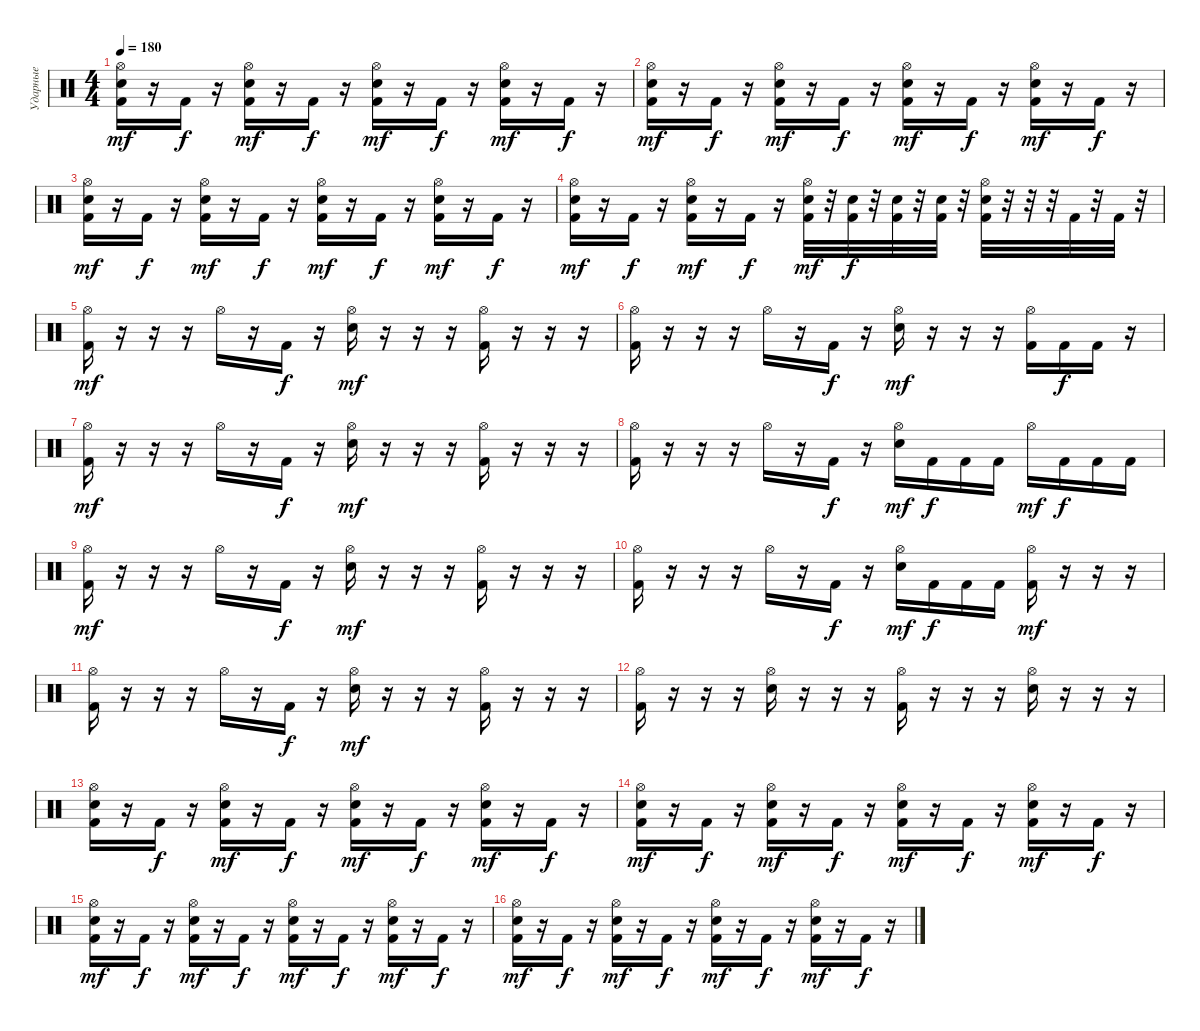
\track ("Ударные" "Ударные") {instrument percussion}
\staff {score}
\articulation defaults
\ts (4 4)
\tempo 180
\clef neutral
\ks c
("Hi-Hat (open)" "Snare (hit) 2" "Kick (hit) 2").16{dy mf} r.16 "Kick (hit) 2".16{dy f} r.16 ("Hi-Hat (open)" "Snare (hit) 2" "Kick (hit) 2").16{dy mf} r.16 "Kick (hit) 2".16{dy f} r.16 ("Hi-Hat (open)" "Snare (hit) 2" "Kick (hit) 2").16{dy mf} r.16 "Kick (hit) 2".16{dy f} r.16 ("Hi-Hat (open)" "Snare (hit) 2" "Kick (hit) 2").16{dy mf} r.16 "Kick (hit) 2".16{dy f} r.16 |
("Hi-Hat (open)" "Snare (hit) 2" "Kick (hit) 2").16{dy mf} r.16 "Kick (hit) 2".16{dy f} r.16 ("Hi-Hat (open)" "Snare (hit) 2" "Kick (hit) 2").16{dy mf} r.16 "Kick (hit) 2".16{dy f} r.16 ("Hi-Hat (open)" "Snare (hit) 2" "Kick (hit) 2").16{dy mf} r.16 "Kick (hit) 2".16{dy f} r.16 ("Hi-Hat (open)" "Snare (hit) 2" "Kick (hit) 2").16{dy mf} r.16 "Kick (hit) 2".16{dy f} r.16 |
("Hi-Hat (open)" "Snare (hit) 2" "Kick (hit) 2").16{dy mf} r.16 "Kick (hit) 2".16{dy f} r.16 ("Hi-Hat (open)" "Snare (hit) 2" "Kick (hit) 2").16{dy mf} r.16 "Kick (hit) 2".16{dy f} r.16 ("Hi-Hat (open)" "Snare (hit) 2" "Kick (hit) 2").16{dy mf} r.16 "Kick (hit) 2".16{dy f} r.16 ("Hi-Hat (open)" "Snare (hit) 2" "Kick (hit) 2").16{dy mf} r.16 "Kick (hit) 2".16{dy f} r.16 |
("Hi-Hat (open)" "Snare (hit) 2" "Kick (hit) 2").16{dy mf} r.16 "Kick (hit) 2".16{dy f} r.16 ("Hi-Hat (open)" "Snare (hit) 2" "Kick (hit) 2").16{dy mf} r.16 "Kick (hit) 2".16{dy f} r.16 ("Hi-Hat (open)" "Snare (hit) 2" "Kick (hit) 2").32{dy mf} r.32 ("Snare (hit) 2" "Kick (hit) 2").32{dy f} r.32 ("Snare (hit) 2" "Kick (hit) 2").32 r.32 ("Snare (hit) 2" "Kick (hit) 2").32 r.32 ("Hi-Hat (open)" "Snare (hit) 2" "Kick (hit) 2").32 r.32 r.32 r.32 "Kick (hit) 2".32 r.32 "Kick (hit) 2".32 r.32 |
("Hi-Hat (open)" "Kick (hit) 2").16{dy mf} r.16 r.16 r.16 "Hi-Hat (open)".16 r.16 "Kick (hit) 2".16{dy f} r.16 ("Hi-Hat (open)" "Snare (hit) 2").16{dy mf} r.16 r.16 r.16 ("Hi-Hat (open)" "Kick (hit) 2").16 r.16 r.16 r.16 |
("Hi-Hat (open)" "Kick (hit) 2").16 r.16 r.16 r.16 "Hi-Hat (open)".16 r.16 "Kick (hit) 2".16{dy f} r.16 ("Hi-Hat (open)" "Snare (hit) 2").16{dy mf} r.16 r.16 r.16 ("Hi-Hat (open)" "Kick (hit) 2").16 "Kick (hit) 2".16{dy f} "Kick (hit) 2".16 r.16 |
("Hi-Hat (open)" "Kick (hit) 2").16{dy mf} r.16 r.16 r.16 "Hi-Hat (open)".16 r.16 "Kick (hit) 2".16{dy f} r.16 ("Hi-Hat (open)" "Snare (hit) 2").16{dy mf} r.16 r.16 r.16 ("Hi-Hat (open)" "Kick (hit) 2").16 r.16 r.16 r.16 |
("Hi-Hat (open)" "Kick (hit) 2").16 r.16 r.16 r.16 "Hi-Hat (open)".16 r.16 "Kick (hit) 2".16{dy f} r.16 ("Hi-Hat (open)" "Snare (hit) 2").16{dy mf} "Kick (hit) 2".16{dy f} "Kick (hit) 2".16 "Kick (hit) 2".16 "Hi-Hat (open)".16{dy mf} "Kick (hit) 2".16{dy f} "Kick (hit) 2".16 "Kick (hit) 2".16 |
("Hi-Hat (open)" "Kick (hit) 2").16{dy mf} r.16 r.16 r.16 "Hi-Hat (open)".16 r.16 "Kick (hit) 2".16{dy f} r.16 ("Hi-Hat (open)" "Snare (hit) 2").16{dy mf} r.16 r.16 r.16 ("Hi-Hat (open)" "Kick (hit) 2").16 r.16 r.16 r.16 |
("Hi-Hat (open)" "Kick (hit) 2").16 r.16 r.16 r.16 "Hi-Hat (open)".16 r.16 "Kick (hit) 2".16{dy f} r.16 ("Hi-Hat (open)" "Snare (hit) 2").16{dy mf} "Kick (hit) 2".16{dy f} "Kick (hit) 2".16 "Kick (hit) 2".16 ("Hi-Hat (open)" "Kick (hit) 2").16{dy mf} r.16 r.16 r.16 |
("Hi-Hat (open)" "Kick (hit) 2").16 r.16 r.16 r.16 "Hi-Hat (open)".16 r.16 "Kick (hit) 2".16{dy f} r.16 ("Hi-Hat (open)" "Snare (hit) 2").16{dy mf} r.16 r.16 r.16 ("Hi-Hat (open)" "Kick (hit) 2").16 r.16 r.16 r.16 |
("Hi-Hat (open)" "Kick (hit) 2").16 r.16 r.16 r.16 ("Hi-Hat (open)" "Snare (hit) 2").16 r.16 r.16 r.16 ("Hi-Hat (open)" "Kick (hit) 2").16 r.16 r.16 r.16 ("Hi-Hat (open)" "Snare (hit) 2").16 r.16 r.16 r.16 |
("Hi-Hat (open)" "Snare (hit) 2" "Kick (hit) 2").16 r.16 "Kick (hit) 2".16{dy f} r.16 ("Hi-Hat (open)" "Snare (hit) 2" "Kick (hit) 2").16{dy mf} r.16 "Kick (hit) 2".16{dy f} r.16 ("Hi-Hat (open)" "Snare (hit) 2" "Kick (hit) 2").16{dy mf} r.16 "Kick (hit) 2".16{dy f} r.16 ("Hi-Hat (open)" "Snare (hit) 2" "Kick (hit) 2").16{dy mf} r.16 "Kick (hit) 2".16{dy f} r.16 |
("Hi-Hat (open)" "Snare (hit) 2" "Kick (hit) 2").16{dy mf} r.16 "Kick (hit) 2".16{dy f} r.16 ("Hi-Hat (open)" "Snare (hit) 2" "Kick (hit) 2").16{dy mf} r.16 "Kick (hit) 2".16{dy f} r.16 ("Hi-Hat (open)" "Snare (hit) 2" "Kick (hit) 2").16{dy mf} r.16 "Kick (hit) 2".16{dy f} r.16 ("Hi-Hat (open)" "Snare (hit) 2" "Kick (hit) 2").16{dy mf} r.16 "Kick (hit) 2".16{dy f} r.16 |
("Hi-Hat (open)" "Snare (hit) 2" "Kick (hit) 2").16{dy mf} r.16 "Kick (hit) 2".16{dy f} r.16 ("Hi-Hat (open)" "Snare (hit) 2" "Kick (hit) 2").16{dy mf} r.16 "Kick (hit) 2".16{dy f} r.16 ("Hi-Hat (open)" "Snare (hit) 2" "Kick (hit) 2").16{dy mf} r.16 "Kick (hit) 2".16{dy f} r.16 ("Hi-Hat (open)" "Snare (hit) 2" "Kick (hit) 2").16{dy mf} r.16 "Kick (hit) 2".16{dy f} r.16 |
("Hi-Hat (open)" "Snare (hit) 2" "Kick (hit) 2").16{dy mf} r.16 "Kick (hit) 2".16{dy f} r.16 ("Hi-Hat (open)" "Snare (hit) 2" "Kick (hit) 2").16{dy mf} r.16 "Kick (hit) 2".16{dy f} r.16 ("Hi-Hat (open)" "Snare (hit) 2" "Kick (hit) 2").16{dy mf} r.16 "Kick (hit) 2".16{dy f} r.16 ("Hi-Hat (open)" "Snare (hit) 2" "Kick (hit) 2").16{dy mf} r.16 "Kick (hit) 2".16{dy f} r.16
